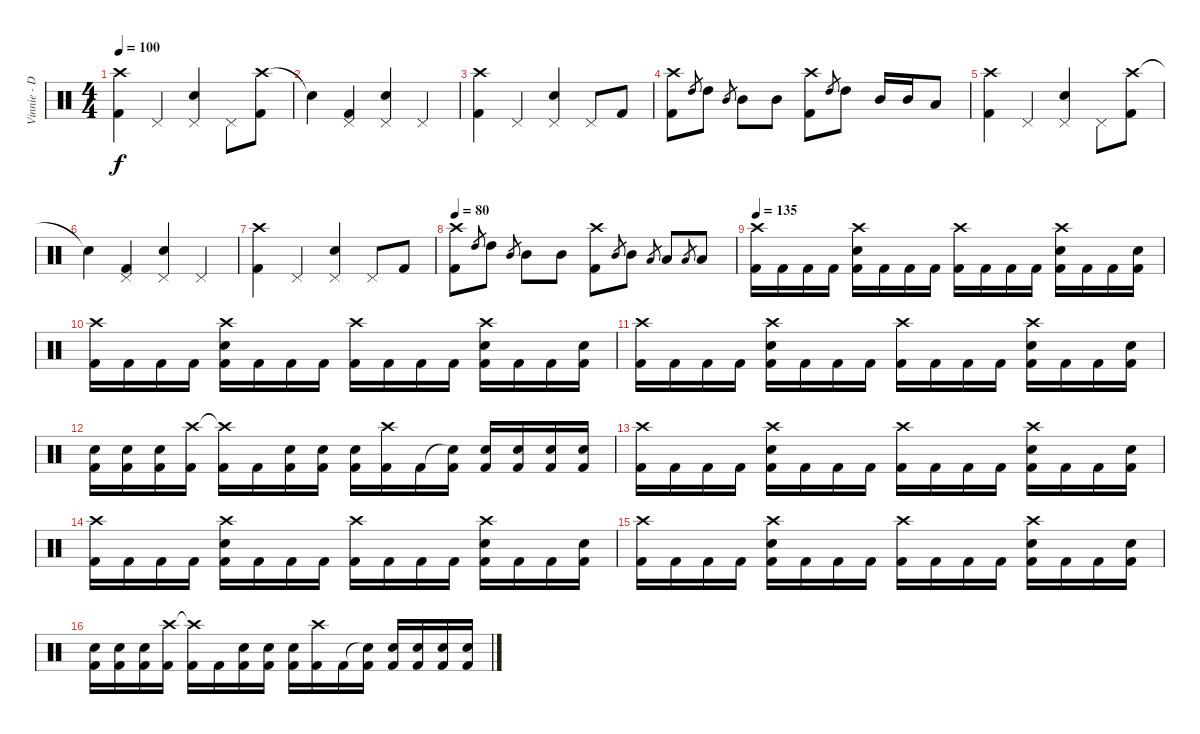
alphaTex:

\track ("Vinnie - Drums" "Vinnie - D") {instrument percussion}
\staff {score}
\articulation defaults
\ts (4 4)
\tempo 100
\clef neutral
\ks c
("Crash high (hit)" "Kick (hit) 2").4{dy f} "Pedal Hi-Hat (hit)".4 ("Pedal Hi-Hat (hit)" "Electric Snare (hit)").4 "Pedal Hi-Hat (hit)".8 ("Crash high (hit)" "Kick (hit) 2").8 |
"Snare (hit)"{t}.4 ("Pedal Hi-Hat (hit)" "Kick (hit) 2").4 ("Pedal Hi-Hat (hit)" "Electric Snare (hit)").4 "Pedal Hi-Hat (hit)".4 |
("Crash high (hit)" "Kick (hit) 2").4 "Pedal Hi-Hat (hit)".4 ("Pedal Hi-Hat (hit)" "Electric Snare (hit)").4 "Pedal Hi-Hat (hit)".8 "Kick (hit) 2".8 |
("Crash high (hit)" "Kick (hit) 2").8 "High Tom (hit)".8{gr} "High Tom (hit)".8 "Mid Tom (hit)".8{gr} "Mid Tom (hit)".8 "Mid Tom (hit)".8 ("Crash high (hit)" "Kick (hit) 2").8 "High Tom (hit)".8{gr} "High Tom (hit)".8 "Mid Tom (hit)".16 "Mid Tom (hit)".16 "Low Tom (hit)".8 |
("Crash high (hit)" "Kick (hit) 2").4 "Pedal Hi-Hat (hit)".4 ("Pedal Hi-Hat (hit)" "Electric Snare (hit)").4 "Pedal Hi-Hat (hit)".8 ("Crash high (hit)" "Kick (hit) 2").8 |
"Snare (hit)"{t}.4 ("Pedal Hi-Hat (hit)" "Kick (hit) 2").4 ("Pedal Hi-Hat (hit)" "Electric Snare (hit)").4 "Pedal Hi-Hat (hit)".4 |
("Crash high (hit)" "Kick (hit) 2").4 "Pedal Hi-Hat (hit)".4 ("Pedal Hi-Hat (hit)" "Electric Snare (hit)").4 "Pedal Hi-Hat (hit)".8 "Kick (hit) 2".8 |
\tempo 80
("Crash high (hit)" "Kick (hit) 2").8 "High Tom (hit)".8{gr} "High Tom (hit)".8 "Mid Tom (hit)".8{gr} "Mid Tom (hit)".8 "Mid Tom (hit)".8 ("Crash high (hit)" "Kick (hit) 2").8 "Mid Tom (hit)".8{gr} "Mid Tom (hit)".8 "Low Tom (hit)".8{gr} "Low Tom (hit)".8 "Low Tom (hit)".8{gr} "Low Tom (hit)".8 |
\tempo 135
("Crash high (hit)" "Kick (hit) 2").16 "Kick (hit) 2".16 "Kick (hit) 2".16 "Kick (hit) 2".16 ("Crash high (hit)" "Electric Snare (hit)" "Kick (hit) 2").16 "Kick (hit) 2".16 "Kick (hit) 2".16 "Kick (hit) 2".16 ("Crash high (hit)" "Kick (hit) 2").16 "Kick (hit) 2".16 "Kick (hit) 2".16 "Kick (hit) 2".16 ("Crash high (hit)" "Electric Snare (hit)" "Kick (hit) 2").16 "Kick (hit) 2".16 "Kick (hit) 2".16 ("Electric Snare (hit)" "Kick (hit) 2").16 |
("Crash high (hit)" "Kick (hit) 2").16 "Kick (hit) 2".16 "Kick (hit) 2".16 "Kick (hit) 2".16 ("Crash high (hit)" "Electric Snare (hit)" "Kick (hit) 2").16 "Kick (hit) 2".16 "Kick (hit) 2".16 "Kick (hit) 2".16 ("Crash high (hit)" "Kick (hit) 2").16 "Kick (hit) 2".16 "Kick (hit) 2".16 "Kick (hit) 2".16 ("Crash high (hit)" "Electric Snare (hit)" "Kick (hit) 2").16 "Kick (hit) 2".16 "Kick (hit) 2".16 ("Electric Snare (hit)" "Kick (hit) 2").16 |
("Crash high (hit)" "Kick (hit) 2").16 "Kick (hit) 2".16 "Kick (hit) 2".16 "Kick (hit) 2".16 ("Crash high (hit)" "Electric Snare (hit)" "Kick (hit) 2").16 "Kick (hit) 2".16 "Kick (hit) 2".16 "Kick (hit) 2".16 ("Crash high (hit)" "Kick (hit) 2").16 "Kick (hit) 2".16 "Kick (hit) 2".16 "Kick (hit) 2".16 ("Crash high (hit)" "Electric Snare (hit)" "Kick (hit) 2").16 "Kick (hit) 2".16 "Kick (hit) 2".16 ("Electric Snare (hit)" "Kick (hit) 2").16 |
("Electric Snare (hit)" "Kick (hit) 2").16 ("Electric Snare (hit)" "Kick (hit) 2").16 ("Electric Snare (hit)" "Kick (hit) 2").16 ("Crash high (hit)" "Kick (hit) 2").16 ("Crash high (hit)"{t} "Kick (hit) 2").16 "Kick (hit) 2".16 ("Electric Snare (hit)" "Kick (hit) 2").16 ("Electric Snare (hit)" "Kick (hit) 2").16 ("Electric Snare (hit)" "Kick (hit) 2").16 ("Crash high (hit)" "Kick (hit) 2").16 "Kick (hit) 2".16 ("Snare (hit)"{t} "Kick (hit) 2").16 ("Electric Snare (hit)" "Kick (hit) 2").16 ("Electric Snare (hit)" "Kick (hit) 2").16 ("Electric Snare (hit)" "Kick (hit) 2").16 ("Electric Snare (hit)" "Kick (hit) 2").16 |
("Crash high (hit)" "Kick (hit) 2").16 "Kick (hit) 2".16 "Kick (hit) 2".16 "Kick (hit) 2".16 ("Crash high (hit)" "Electric Snare (hit)" "Kick (hit) 2").16 "Kick (hit) 2".16 "Kick (hit) 2".16 "Kick (hit) 2".16 ("Crash high (hit)" "Kick (hit) 2").16 "Kick (hit) 2".16 "Kick (hit) 2".16 "Kick (hit) 2".16 ("Crash high (hit)" "Electric Snare (hit)" "Kick (hit) 2").16 "Kick (hit) 2".16 "Kick (hit) 2".16 ("Electric Snare (hit)" "Kick (hit) 2").16 |
("Crash high (hit)" "Kick (hit) 2").16 "Kick (hit) 2".16 "Kick (hit) 2".16 "Kick (hit) 2".16 ("Crash high (hit)" "Electric Snare (hit)" "Kick (hit) 2").16 "Kick (hit) 2".16 "Kick (hit) 2".16 "Kick (hit) 2".16 ("Crash high (hit)" "Kick (hit) 2").16 "Kick (hit) 2".16 "Kick (hit) 2".16 "Kick (hit) 2".16 ("Crash high (hit)" "Electric Snare (hit)" "Kick (hit) 2").16 "Kick (hit) 2".16 "Kick (hit) 2".16 ("Electric Snare (hit)" "Kick (hit) 2").16 |
("Crash high (hit)" "Kick (hit) 2").16 "Kick (hit) 2".16 "Kick (hit) 2".16 "Kick (hit) 2".16 ("Crash high (hit)" "Electric Snare (hit)" "Kick (hit) 2").16 "Kick (hit) 2".16 "Kick (hit) 2".16 "Kick (hit) 2".16 ("Crash high (hit)" "Kick (hit) 2").16 "Kick (hit) 2".16 "Kick (hit) 2".16 "Kick (hit) 2".16 ("Crash high (hit)" "Electric Snare (hit)" "Kick (hit) 2").16 "Kick (hit) 2".16 "Kick (hit) 2".16 ("Electric Snare (hit)" "Kick (hit) 2").16 |
("Electric Snare (hit)" "Kick (hit) 2").16 ("Electric Snare (hit)" "Kick (hit) 2").16 ("Electric Snare (hit)" "Kick (hit) 2").16 ("Crash high (hit)" "Kick (hit) 2").16 ("Crash high (hit)"{t} "Kick (hit) 2").16 "Kick (hit) 2".16 ("Electric Snare (hit)" "Kick (hit) 2").16 ("Electric Snare (hit)" "Kick (hit) 2").16 ("Electric Snare (hit)" "Kick (hit) 2").16 ("Crash high (hit)" "Kick (hit) 2").16 "Kick (hit) 2".16 ("Snare (hit)"{t} "Kick (hit) 2").16 ("Electric Snare (hit)" "Kick (hit) 2").16 ("Electric Snare (hit)" "Kick (hit) 2").16 ("Electric Snare (hit)" "Kick (hit) 2").16 ("Electric Snare (hit)" "Kick (hit) 2").16
